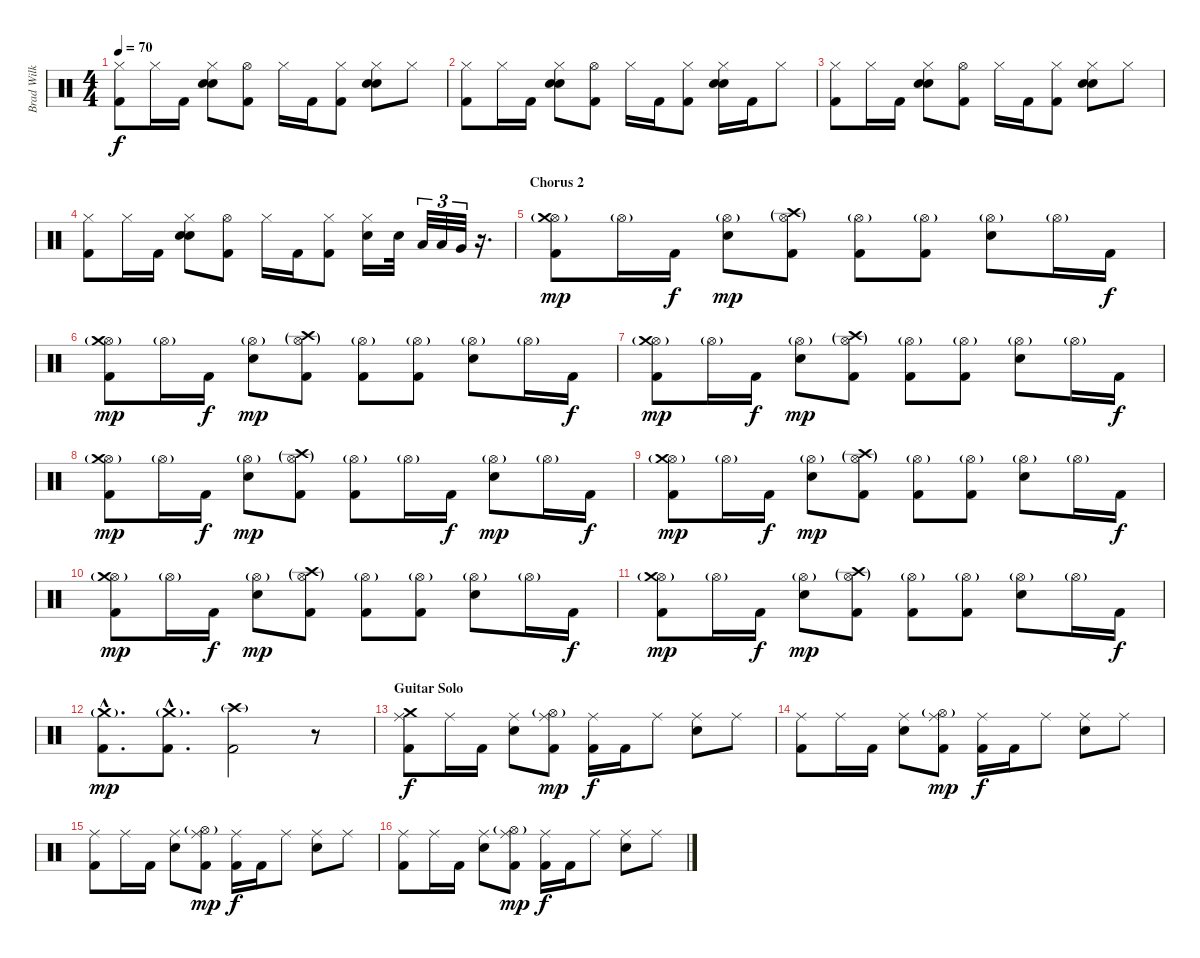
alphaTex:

\track ("Brad Wilk (percussion)" "Brad Wilk ") {instrument percussion}
\staff {score}
\articulation defaults
\ts (4 4)
\tempo 70
\clef neutral
\ks c
("Hi-Hat (closed)" "Kick (hit) 2").8{dy f} "Hi-Hat (closed)".16 "Kick (hit) 2".16 ("Hi-Hat (closed)" "Electric Snare (hit)" "Electric Snare (hit)").8 ("Hi-Hat (open)" "Kick (hit) 2").8 "Hi-Hat (closed)".16 "Kick (hit) 2".16 ("Hi-Hat (closed)" "Kick (hit) 2").8 ("Hi-Hat (closed)" "Electric Snare (hit)" "Electric Snare (hit)").8 "Hi-Hat (closed)".8 |
("Hi-Hat (closed)" "Kick (hit) 2").8 "Hi-Hat (closed)".16 "Kick (hit) 2".16 ("Hi-Hat (closed)" "Electric Snare (hit)" "Electric Snare (hit)").8 ("Hi-Hat (open)" "Kick (hit) 2").8 "Hi-Hat (closed)".16 "Kick (hit) 2".16 ("Hi-Hat (closed)" "Kick (hit) 2").8 ("Hi-Hat (closed)" "Electric Snare (hit)" "Electric Snare (hit)").16 "Kick (hit) 2".16 "Hi-Hat (closed)".8 |
("Hi-Hat (closed)" "Kick (hit) 2").8 "Hi-Hat (closed)".16 "Kick (hit) 2".16 ("Hi-Hat (closed)" "Electric Snare (hit)" "Electric Snare (hit)").8 ("Hi-Hat (open)" "Kick (hit) 2").8 "Hi-Hat (closed)".16 "Kick (hit) 2".16 ("Hi-Hat (closed)" "Kick (hit) 2").8 ("Hi-Hat (closed)" "Electric Snare (hit)" "Electric Snare (hit)").8 "Hi-Hat (closed)".8 |
("Hi-Hat (closed)" "Kick (hit) 2").8 "Hi-Hat (closed)".16 "Kick (hit) 2".16 ("Hi-Hat (closed)" "Electric Snare (hit)" "Electric Snare (hit)").8 ("Hi-Hat (open)" "Kick (hit) 2").8 "Hi-Hat (closed)".16 "Kick (hit) 2".16 ("Hi-Hat (closed)" "Kick (hit) 2").8 ("Hi-Hat (closed)" "Electric Snare (hit)").16 "Electric Snare (hit)".32 "Low Tom (hit)".32{tu (3 2)} "Low Floor Tom (hit)".32{tu (3 2)} "Very Low Tom (hit)".32{tu (3 2)} r.16{d} |
\section ("" "Chorus 2")
("Hi-Hat (open)"{g} "Crash medium (hit)" "Kick (hit) 2").8{dy mp volume 16} "Hi-Hat (open)"{g}.16 "Kick (hit) 2".16{dy f} ("Hi-Hat (open)"{g} "Electric Snare (hit)").8{dy mp} ("Hi-Hat (open)"{g} "Crash high (hit)"{g} "Kick (hit) 2").8 ("Hi-Hat (open)"{g} "Kick (hit) 2").8 ("Hi-Hat (open)"{g} "Kick (hit) 2").8 ("Hi-Hat (open)"{g} "Electric Snare (hit)").8 "Hi-Hat (open)"{g}.16 "Kick (hit) 2".16{dy f} |
("Hi-Hat (open)"{g} "Crash medium (hit)" "Kick (hit) 2").8{dy mp} "Hi-Hat (open)"{g}.16 "Kick (hit) 2".16{dy f} ("Hi-Hat (open)"{g} "Electric Snare (hit)").8{dy mp} ("Hi-Hat (open)"{g} "Crash high (hit)"{g} "Kick (hit) 2").8 ("Hi-Hat (open)"{g} "Kick (hit) 2").8 ("Hi-Hat (open)"{g} "Kick (hit) 2").8 ("Hi-Hat (open)"{g} "Electric Snare (hit)").8 "Hi-Hat (open)"{g}.16 "Kick (hit) 2".16{dy f} |
("Hi-Hat (open)"{g} "Crash medium (hit)" "Kick (hit) 2").8{dy mp} "Hi-Hat (open)"{g}.16 "Kick (hit) 2".16{dy f} ("Hi-Hat (open)"{g} "Electric Snare (hit)").8{dy mp} ("Hi-Hat (open)"{g} "Crash high (hit)"{g} "Kick (hit) 2").8 ("Hi-Hat (open)"{g} "Kick (hit) 2").8 ("Hi-Hat (open)"{g} "Kick (hit) 2").8 ("Hi-Hat (open)"{g} "Electric Snare (hit)").8 "Hi-Hat (open)"{g}.16 "Kick (hit) 2".16{dy f} |
("Hi-Hat (open)"{g} "Crash medium (hit)" "Kick (hit) 2").8{dy mp} "Hi-Hat (open)"{g}.16 "Kick (hit) 2".16{dy f} ("Hi-Hat (open)"{g} "Electric Snare (hit)").8{dy mp} ("Hi-Hat (open)"{g} "Crash high (hit)"{g} "Kick (hit) 2").8 ("Hi-Hat (open)"{g} "Kick (hit) 2").8 "Hi-Hat (open)"{g}.16 "Kick (hit) 2".16{dy f} ("Hi-Hat (open)"{g} "Electric Snare (hit)").8{dy mp} "Hi-Hat (open)"{g}.16 "Kick (hit) 2".16{dy f} |
("Hi-Hat (open)"{g} "Crash medium (hit)" "Kick (hit) 2").8{dy mp} "Hi-Hat (open)"{g}.16 "Kick (hit) 2".16{dy f} ("Hi-Hat (open)"{g} "Electric Snare (hit)").8{dy mp} ("Hi-Hat (open)"{g} "Crash high (hit)"{g} "Kick (hit) 2").8 ("Hi-Hat (open)"{g} "Kick (hit) 2").8 ("Hi-Hat (open)"{g} "Kick (hit) 2").8 ("Hi-Hat (open)"{g} "Electric Snare (hit)").8 "Hi-Hat (open)"{g}.16 "Kick (hit) 2".16{dy f} |
("Hi-Hat (open)"{g} "Crash medium (hit)" "Kick (hit) 2").8{dy mp} "Hi-Hat (open)"{g}.16 "Kick (hit) 2".16{dy f} ("Hi-Hat (open)"{g} "Electric Snare (hit)").8{dy mp} ("Hi-Hat (open)"{g} "Crash high (hit)"{g} "Kick (hit) 2").8 ("Hi-Hat (open)"{g} "Kick (hit) 2").8 ("Hi-Hat (open)"{g} "Kick (hit) 2").8 ("Hi-Hat (open)"{g} "Electric Snare (hit)").8 "Hi-Hat (open)"{g}.16 "Kick (hit) 2".16{dy f} |
("Hi-Hat (open)"{g} "Crash medium (hit)" "Kick (hit) 2").8{dy mp} "Hi-Hat (open)"{g}.16 "Kick (hit) 2".16{dy f} ("Hi-Hat (open)"{g} "Electric Snare (hit)").8{dy mp} ("Hi-Hat (open)"{g} "Crash high (hit)"{g} "Kick (hit) 2").8 ("Hi-Hat (open)"{g} "Kick (hit) 2").8 ("Hi-Hat (open)"{g} "Kick (hit) 2").8 ("Hi-Hat (open)"{g} "Electric Snare (hit)").8 "Hi-Hat (open)"{g}.16 "Kick (hit) 2".16{dy f} |
("Crash medium (hit)"{g hac} "Kick (hit) 2"{hac}).8{d dy mp} ("Crash medium (hit)"{g hac} "Kick (hit) 2"{hac}).8{d} ("Crash high (hit)"{g} "Kick (hit) 2").2 r.8 |
\section ("" "Guitar Solo")
("Ride (middle)" "Crash medium (hit)" "Kick (hit) 2").8{dy f} "Ride (middle)".16 "Kick (hit) 2".16 ("Ride (middle)" "Electric Snare (hit)").8 ("Ride (middle)" "Hi-Hat (open)"{g} "Kick (hit) 2").8{dy mp} ("Ride (middle)" "Kick (hit) 2").16{dy f} "Kick (hit) 2".16 "Ride (middle)".8 ("Ride (middle)" "Electric Snare (hit)").8 "Ride (middle)".8 |
("Ride (middle)" "Kick (hit) 2").8 "Ride (middle)".16 "Kick (hit) 2".16 ("Ride (middle)" "Electric Snare (hit)").8 ("Ride (middle)" "Hi-Hat (open)"{g} "Kick (hit) 2").8{dy mp} ("Ride (middle)" "Kick (hit) 2").16{dy f} "Kick (hit) 2".16 "Ride (middle)".8 ("Ride (middle)" "Electric Snare (hit)").8 "Ride (middle)".8 |
("Ride (middle)" "Kick (hit) 2").8 "Ride (middle)".16 "Kick (hit) 2".16 ("Ride (middle)" "Electric Snare (hit)").8 ("Ride (middle)" "Hi-Hat (open)"{g} "Kick (hit) 2").8{dy mp} ("Ride (middle)" "Kick (hit) 2").16{dy f} "Kick (hit) 2".16 "Ride (middle)".8 ("Ride (middle)" "Electric Snare (hit)").8 "Ride (middle)".8 |
("Ride (middle)" "Kick (hit) 2").8 "Ride (middle)".16 "Kick (hit) 2".16 ("Ride (middle)" "Electric Snare (hit)").8 ("Ride (middle)" "Hi-Hat (open)"{g} "Kick (hit) 2").8{dy mp} ("Ride (middle)" "Kick (hit) 2").16{dy f} "Kick (hit) 2".16 "Ride (middle)".8 ("Ride (middle)" "Electric Snare (hit)").8 "Ride (middle)".8
